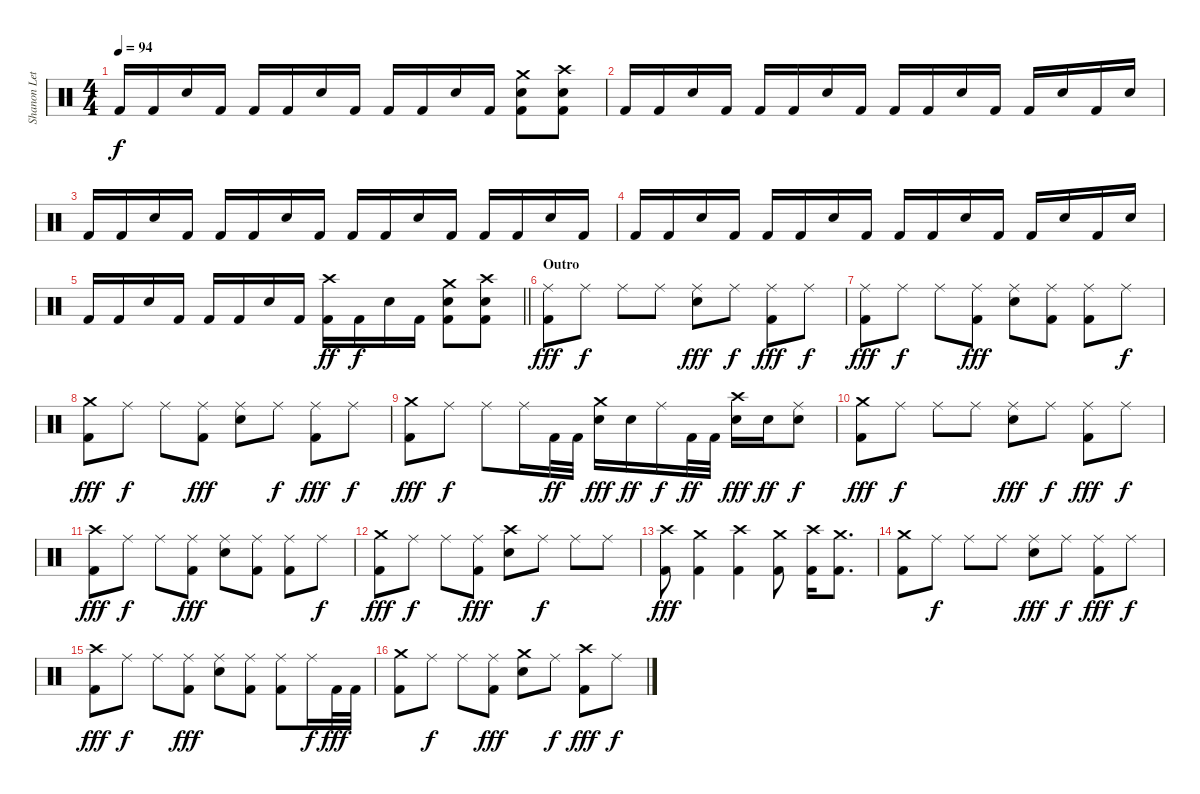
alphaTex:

\track ("Shanon Leto" "Shanon Let") {instrument percussion}
\staff {score}
\articulation defaults
\ts (4 4)
\tempo 94
\clef neutral
\ks c "Kick (hit) 2".16{dy f} "Kick (hit) 2".16 "Snare (hit) 2".16 "Kick (hit) 2".16 "Kick (hit) 2".16 "Kick (hit) 2".16 "Snare (hit) 2".16 "Kick (hit) 2".16 "Kick (hit) 2".16 "Kick (hit) 2".16 "Snare (hit) 2".16 "Kick (hit) 2".16
("Crash medium (hit)" "Snare (hit) 2" "Kick (hit) 2").8 ("Crash high (hit)" "Snare (hit) 2" "Kick (hit) 2").8 |
"Kick (hit) 2".16 "Kick (hit) 2".16 "Snare (hit) 2".16 "Kick (hit) 2".16 "Kick (hit) 2".16 "Kick (hit) 2".16 "Snare (hit) 2".16 "Kick (hit) 2".16 "Kick (hit) 2".16 "Kick (hit) 2".16 "Snare (hit) 2".16 "Kick (hit) 2".16 "Kick (hit) 2".16 "Snare (hit) 2".16 "Kick (hit) 2".16 "Snare (hit) 2".16 |
"Kick (hit) 2".16 "Kick (hit) 2".16 "Snare (hit) 2".16 "Kick (hit) 2".16 "Kick (hit) 2".16 "Kick (hit) 2".16 "Snare (hit) 2".16 "Kick (hit) 2".16 "Kick (hit) 2".16 "Kick (hit) 2".16 "Snare (hit) 2".16 "Kick (hit) 2".16 "Kick (hit) 2".16 "Kick (hit) 2".16 "Snare (hit) 2".16 "Kick (hit) 2".16 |
"Kick (hit) 2".16 "Kick (hit) 2".16 "Snare (hit) 2".16 "Kick (hit) 2".16 "Kick (hit) 2".16 "Kick (hit) 2".16 "Snare (hit) 2".16 "Kick (hit) 2".16 "Kick (hit) 2".16 "Kick (hit) 2".16 "Snare (hit) 2".16 "Kick (hit) 2".16 "Kick (hit) 2".16 "Snare (hit) 2".16 "Kick (hit) 2".16 "Snare (hit) 2".16 |
\barLineRight lightlight "Kick (hit) 2".16 "Kick (hit) 2".16 "Snare (hit) 2".16 "Kick (hit) 2".16 "Kick (hit) 2".16 "Kick (hit) 2".16 "Snare (hit) 2".16 "Kick (hit) 2".16
("Crash high (hit)" "Kick (hit) 2").16{dy ff} "Kick (hit) 2".16{dy f} "Snare (hit) 2".16 "Kick (hit) 2".16 ("Crash medium (hit)" "Snare (hit) 2" "Kick (hit) 2").8 ("Crash high (hit)" "Snare (hit) 2" "Kick (hit) 2").8 |
\section ("" "Outro")
("Ride (middle)" "Kick (hit) 2").8{dy fff} "Ride (middle)".8{dy f} "Ride (middle)".8 "Ride (middle)".8 ("Ride (middle)" "Snare (hit) 2").8{dy fff} "Ride (middle)".8{dy f} ("Ride (middle)" "Kick (hit) 2").8{dy fff} "Ride (middle)".8{dy f} |
("Ride (middle)" "Kick (hit) 2").8{dy fff} "Ride (middle)".8{dy f} "Ride (middle)".8 ("Ride (middle)" "Kick (hit) 2").8{dy fff} ("Ride (middle)" "Snare (hit) 2").8 ("Ride (middle)" "Kick (hit) 2").8 ("Ride (middle)" "Kick (hit) 2").8 "Ride (middle)".8{dy f} |
("Crash medium (hit)" "Kick (hit) 2").8{dy fff} "Ride (middle)".8{dy f} "Ride (middle)".8 ("Ride (middle)" "Kick (hit) 2").8{dy fff} ("Ride (middle)" "Snare (hit) 2").8 "Ride (middle)".8{dy f} ("Ride (middle)" "Kick (hit) 2").8{dy fff} "Ride (middle)".8{dy f} |
("Crash medium (hit)" "Kick (hit) 2").8{dy fff} "Ride (middle)".8{dy f} "Ride (middle)".8 "Ride (middle)".16 "Kick (hit) 2".32{dy ff} "Kick (hit) 2".32 ("Crash medium (hit)" "Snare (hit) 2").16{dy fff} "Snare (hit) 2".16{dy ff} "Ride (middle)".16{dy f} "Kick (hit) 2".32{dy ff} "Kick (hit) 2".32 ("Crash high (hit)" "Snare (hit) 2").16{dy fff} "Snare (hit) 2".16{dy ff} ("Ride (middle)" "Snare (hit) 2").8{dy f} |
("Crash medium (hit)" "Kick (hit) 2").8{dy fff} "Ride (middle)".8{dy f} "Ride (middle)".8 "Ride (middle)".8 ("Ride (middle)" "Snare (hit) 2").8{dy fff} "Ride (middle)".8{dy f} ("Ride (middle)" "Kick (hit) 2").8{dy fff} "Ride (middle)".8{dy f} |
("Crash high (hit)" "Kick (hit) 2").8{dy fff} "Ride (middle)".8{dy f} "Ride (middle)".8 ("Ride (middle)" "Kick (hit) 2").8{dy fff} ("Ride (middle)" "Snare (hit) 2").8 ("Ride (middle)" "Kick (hit) 2").8 ("Ride (middle)" "Kick (hit) 2").8 "Ride (middle)".8{dy f} |
("Crash medium (hit)" "Kick (hit) 2").8{dy fff} "Ride (middle)".8{dy f} "Ride (middle)".8 ("Ride (middle)" "Kick (hit) 2").8{dy fff} ("Crash high (hit)" "Snare (hit) 2").8 "Ride (middle)".8{dy f} "Ride (middle)".8 "Ride (middle)".8 |
("Crash high (hit)" "Kick (hit) 2").8{dy fff} ("Crash medium (hit)" "Kick (hit) 2").4 ("Crash high (hit)" "Kick (hit) 2").4 ("Crash medium (hit)" "Kick (hit) 2").8 ("Crash high (hit)" "Kick (hit) 2").16 ("Crash medium (hit)" "Kick (hit) 2").8{d} |
("Crash medium (hit)" "Kick (hit) 2").8 "Ride (middle)".8{dy f} "Ride (middle)".8 "Ride (middle)".8 ("Ride (middle)" "Snare (hit) 2").8{dy fff} "Ride (middle)".8{dy f} ("Ride (middle)" "Kick (hit) 2").8{dy fff} "Ride (middle)".8{dy f} |
("Crash high (hit)" "Kick (hit) 2").8{dy fff} "Ride (middle)".8{dy f} "Ride (middle)".8 ("Ride (middle)" "Kick (hit) 2").8{dy fff} ("Ride (middle)" "Snare (hit) 2").8 ("Ride (middle)" "Kick (hit) 2").8 ("Ride (middle)" "Kick (hit) 2").8 "Ride (middle)".16{dy f} "Kick (hit) 2".32{dy fff} "Kick (hit) 2".32 |
("Crash medium (hit)" "Kick (hit) 2").8 "Ride (middle)".8{dy f} "Ride (middle)".8 ("Ride (middle)" "Kick (hit) 2").8{dy fff} ("Crash medium (hit)" "Snare (hit) 2").8 "Ride (middle)".8{dy f} ("Crash high (hit)" "Kick (hit) 2").8{dy fff} "Ride (middle)".8{dy f}
